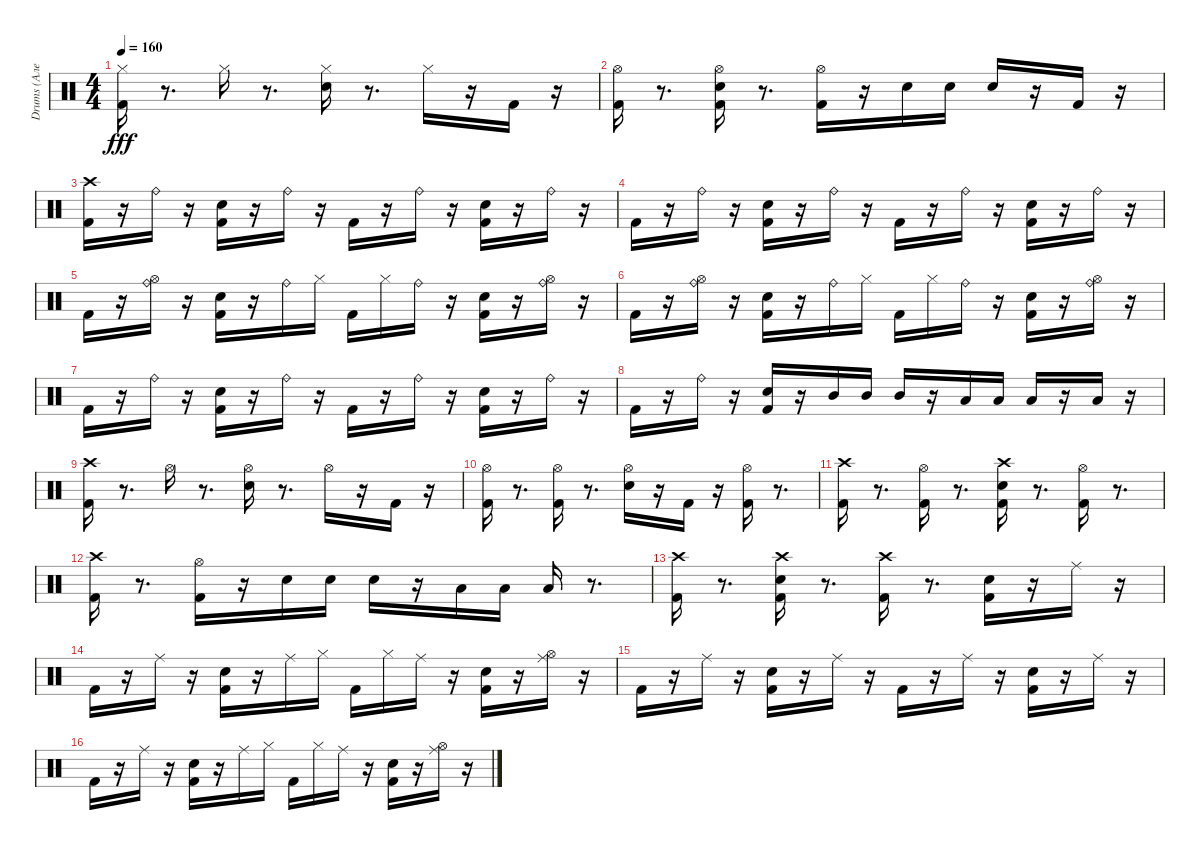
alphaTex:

\track ("Drums (Алексей Барзилович)" "Drums (Але") {instrument percussion}
\staff {score}
\articulation defaults
\ts (4 4)
\tempo 160
\clef neutral
\ks c
("Hi-Hat (closed)" "Kick (hit) 2").16{dy fff} r.8{d} "Hi-Hat (closed)".16 r.8{d} ("Electric Snare (hit)" "Hi-Hat (closed)").16 r.8{d} "Hi-Hat (closed)".16 r.16 "Kick (hit) 2".16 r.16 |
("Kick (hit) 2" "Hi-Hat (open)").16 r.8{d} ("Kick (hit) 2" "Electric Snare (hit)" "Hi-Hat (open)").16 r.8{d} ("Hi-Hat (open)" "Kick (hit) 2").16 r.16 "Electric Snare (hit)".16 "Electric Snare (hit)".16 "Electric Snare (hit)".16 r.16 "Kick (hit) 2".16 r.16 |
("Crash high (hit)" "Kick (hit) 2").16 r.16 "Ride (bell)".16 r.16 ("Electric Snare (hit)" "Kick (hit) 2").16 r.16 "Ride (bell)".16 r.16 "Kick (hit) 2".16 r.16 "Ride (bell)".16 r.16 ("Kick (hit) 2" "Electric Snare (hit)").16 r.16 "Ride (bell)".16 r.16 |
"Kick (hit) 2".16 r.16 "Ride (bell)".16 r.16 ("Kick (hit) 2" "Electric Snare (hit)").16 r.16 "Ride (bell)".16 r.16 "Kick (hit) 2".16 r.16 "Ride (bell)".16 r.16 ("Kick (hit) 2" "Electric Snare (hit)").16 r.16 "Ride (bell)".16 r.16 |
"Kick (hit) 2".16 r.16 ("Ride (bell)" "Hi-Hat (open)").16 r.16 ("Kick (hit) 2" "Electric Snare (hit)").16 r.16 "Ride (bell)".16 "Hi-Hat (closed)".16 "Kick (hit) 2".16 "Hi-Hat (closed)".16 "Ride (bell)".16 r.16 ("Kick (hit) 2" "Electric Snare (hit)").16 r.16 ("Ride (bell)" "Hi-Hat (open)").16 r.16 |
"Kick (hit) 2".16 r.16 ("Hi-Hat (open)" "Ride (bell)").16 r.16 ("Kick (hit) 2" "Electric Snare (hit)").16 r.16 "Ride (bell)".16 "Hi-Hat (closed)".16 "Kick (hit) 2".16 "Hi-Hat (closed)".16 "Ride (bell)".16 r.16 ("Electric Snare (hit)" "Kick (hit) 2").16 r.16 ("Hi-Hat (open)" "Ride (bell)").16 r.16 |
"Kick (hit) 2".16 r.16 "Ride (bell)".16 r.16 ("Electric Snare (hit)" "Kick (hit) 2").16 r.16 "Ride (bell)".16 r.16 "Kick (hit) 2".16 r.16 "Ride (bell)".16 r.16 ("Electric Snare (hit)" "Kick (hit) 2").16 r.16 "Ride (bell)".16 r.16 |
"Kick (hit) 2".16 r.16 "Ride (bell)".16 r.16 ("Electric Snare (hit)" "Kick (hit) 2").16 r.16 "Mid Tom (hit)".16 "Mid Tom (hit)".16 "Mid Tom (hit)".16 r.16 "Low Tom (hit)".16 "Low Tom (hit)".16 "Low Tom (hit)".16 r.16 "Low Tom (hit)".16 r.16 |
("Crash high (hit)" "Kick (hit) 2").16 r.8{d} "Hi-Hat (open)".16 r.8{d} ("Hi-Hat (open)" "Electric Snare (hit)").16 r.8{d} "Hi-Hat (open)".16 r.16 "Kick (hit) 2".16 r.16 |
("Kick (hit) 2" "Hi-Hat (open)").16 r.8{d} ("Hi-Hat (open)" "Kick (hit) 2").16 r.8{d} ("Hi-Hat (open)" "Electric Snare (hit)").16 r.16 "Kick (hit) 2".16 r.16 ("Kick (hit) 2" "Hi-Hat (open)").16 r.8{d} |
("Kick (hit) 2" "Crash high (hit)").16 r.8{d} ("Kick (hit) 2" "Hi-Hat (open)").16 r.8{d} ("Electric Snare (hit)" "Kick (hit) 2" "Crash high (hit)").16 r.8{d} ("Kick (hit) 2" "Hi-Hat (open)").16 r.8{d} |
("Kick (hit) 2" "Crash high (hit)").16 r.8{d} ("Kick (hit) 2" "Hi-Hat (open)").16 r.16 "Electric Snare (hit)".16 "Electric Snare (hit)".16 "Electric Snare (hit)".16 r.16 "Low Tom (hit)".16 "Low Tom (hit)".16 "Low Tom (hit)".16 r.8{d} |
("Crash high (hit)" "Kick (hit) 2").16 r.8{d} ("Crash high (hit)" "Electric Snare (hit)" "Kick (hit) 2").16 r.8{d} ("Crash high (hit)" "Kick (hit) 2").16 r.8{d} ("Electric Snare (hit)" "Kick (hit) 2").16 r.16 "Ride (middle)".16 r.16 |
"Kick (hit) 2".16 r.16 "Ride (middle)".16 r.16 ("Electric Snare (hit)" "Kick (hit) 2").16 r.16 "Ride (middle)".16 "Hi-Hat (closed)".16 "Kick (hit) 2".16 "Hi-Hat (closed)".16 "Ride (middle)".16 r.16 ("Electric Snare (hit)" "Kick (hit) 2").16 r.16 ("Ride (middle)" "Hi-Hat (open)").16 r.16 |
"Kick (hit) 2".16 r.16 "Ride (middle)".16 r.16 ("Electric Snare (hit)" "Kick (hit) 2").16 r.16 "Ride (middle)".16 r.16 "Kick (hit) 2".16 r.16 "Ride (middle)".16 r.16 ("Electric Snare (hit)" "Kick (hit) 2").16 r.16 "Ride (middle)".16 r.16 |
"Kick (hit) 2".16 r.16 "Ride (middle)".16 r.16 ("Electric Snare (hit)" "Kick (hit) 2").16 r.16 "Ride (middle)".16 "Hi-Hat (closed)".16 "Kick (hit) 2".16 "Hi-Hat (closed)".16 "Ride (middle)".16 r.16 ("Electric Snare (hit)" "Kick (hit) 2").16 r.16 ("Hi-Hat (open)" "Ride (middle)").16 r.16
